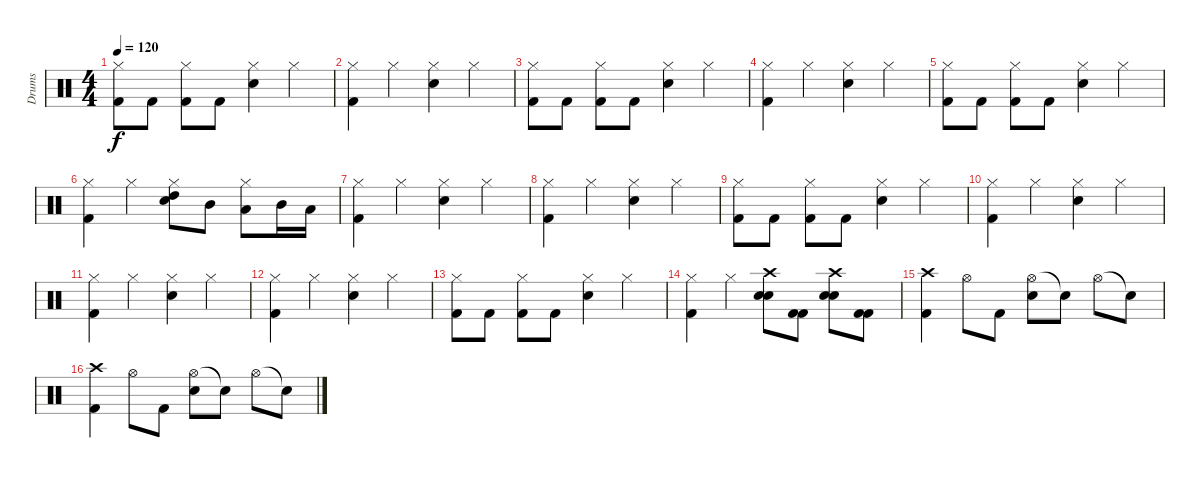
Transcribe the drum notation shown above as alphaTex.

\track ("Drums" "Drums") {instrument percussion}
\staff {score}
\articulation defaults
\ts (4 4)
\tempo 120
\clef neutral
\ks c
("Hi-Hat (closed)" "Kick (hit) 2").8{dy f} "Kick (hit) 2".8 ("Hi-Hat (closed)" "Kick (hit) 2").8 "Kick (hit) 2".8 ("Hi-Hat (closed)" "Electric Snare (hit)").4 "Hi-Hat (closed)".4 |
("Hi-Hat (closed)" "Kick (hit) 2").4 "Hi-Hat (closed)".4 ("Hi-Hat (closed)" "Electric Snare (hit)").4 "Hi-Hat (closed)".4 |
("Hi-Hat (closed)" "Kick (hit) 2").8 "Kick (hit) 2".8 ("Hi-Hat (closed)" "Kick (hit) 2").8 "Kick (hit) 2".8 ("Hi-Hat (closed)" "Electric Snare (hit)").4 "Hi-Hat (closed)".4 |
("Hi-Hat (closed)" "Kick (hit) 2").4 "Hi-Hat (closed)".4 ("Hi-Hat (closed)" "Electric Snare (hit)").4 "Hi-Hat (closed)".4 |
("Hi-Hat (closed)" "Kick (hit) 2").8 "Kick (hit) 2".8 ("Hi-Hat (closed)" "Kick (hit) 2").8 "Kick (hit) 2".8 ("Hi-Hat (closed)" "Electric Snare (hit)").4 "Hi-Hat (closed)".4 |
("Hi-Hat (closed)" "Kick (hit) 2").4 "Hi-Hat (closed)".4 ("Hi-Hat (closed)" "High Tom (hit)" "Electric Snare (hit)").8 "Mid Tom (hit)".8 ("Hi-Hat (closed)" "Low Tom (hit)").8 "Mid Tom (hit)".16 "Low Tom (hit)".16 |
("Hi-Hat (closed)" "Kick (hit) 2").4 "Hi-Hat (closed)".4 ("Hi-Hat (closed)" "Electric Snare (hit)").4 "Hi-Hat (closed)".4 |
("Hi-Hat (closed)" "Kick (hit) 2").4 "Hi-Hat (closed)".4 ("Hi-Hat (closed)" "Electric Snare (hit)").4 "Hi-Hat (closed)".4 |
("Hi-Hat (closed)" "Kick (hit) 2").8 "Kick (hit) 2".8 ("Hi-Hat (closed)" "Kick (hit) 2").8 "Kick (hit) 2".8 ("Hi-Hat (closed)" "Electric Snare (hit)").4 "Hi-Hat (closed)".4 |
("Hi-Hat (closed)" "Kick (hit) 2").4 "Hi-Hat (closed)".4 ("Hi-Hat (closed)" "Electric Snare (hit)").4 "Hi-Hat (closed)".4 |
("Hi-Hat (closed)" "Kick (hit) 2").4 "Hi-Hat (closed)".4 ("Hi-Hat (closed)" "Electric Snare (hit)").4 "Hi-Hat (closed)".4 |
("Hi-Hat (closed)" "Kick (hit) 2").4 "Hi-Hat (closed)".4 ("Hi-Hat (closed)" "Electric Snare (hit)").4 "Hi-Hat (closed)".4 |
("Hi-Hat (closed)" "Kick (hit) 2").8 "Kick (hit) 2".8 ("Hi-Hat (closed)" "Kick (hit) 2").8 "Kick (hit) 2".8 ("Hi-Hat (closed)" "Electric Snare (hit)").4 "Hi-Hat (closed)".4 |
("Hi-Hat (closed)" "Kick (hit) 2").4 "Hi-Hat (closed)".4 ("Crash high (hit)" "Electric Snare (hit)" "Electric Snare (hit)").8 ("Kick (hit) 2" "Kick (hit) 2").8 ("Crash high (hit)" "Electric Snare (hit)" "Electric Snare (hit)").8 ("Kick (hit) 2" "Kick (hit) 2").8 |
("Crash high (hit)" "Kick (hit) 2").4 "Hi-Hat (open)".8 "Kick (hit) 2".8 ("Hi-Hat (open)" "Electric Snare (hit)").8 "Snare (hit)"{t}.8 "Hi-Hat (open)".8 "Snare (hit)"{t}.8 |
("Crash high (hit)" "Kick (hit) 2").4 "Hi-Hat (open)".8 "Kick (hit) 2".8 ("Hi-Hat (open)" "Electric Snare (hit)").8 "Snare (hit)"{t}.8 "Hi-Hat (open)".8 "Snare (hit)"{t}.8
